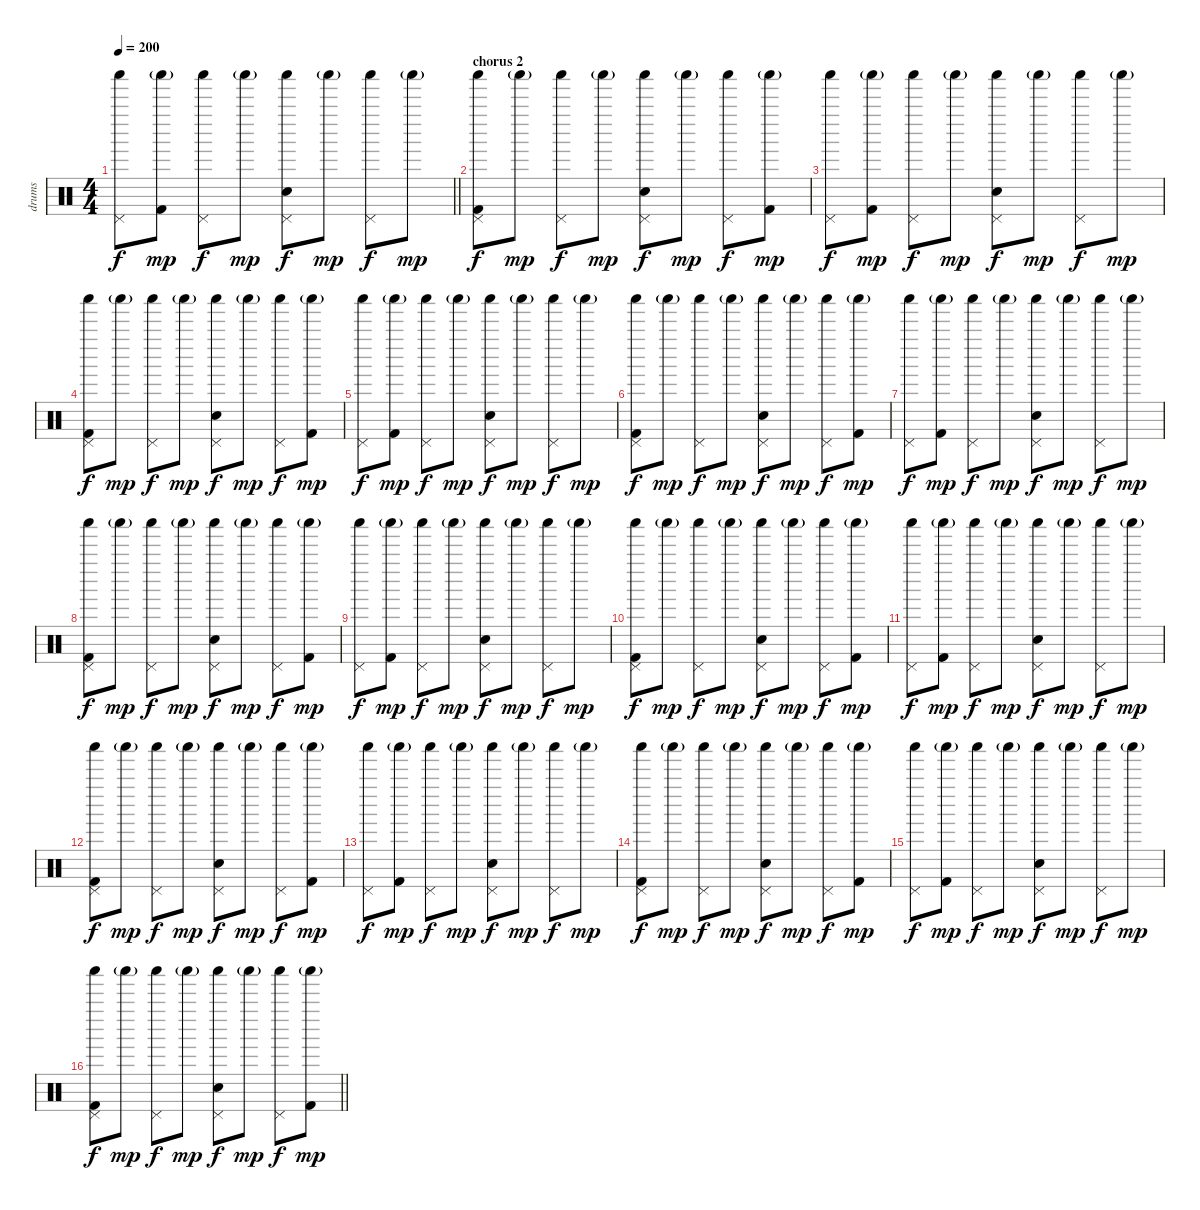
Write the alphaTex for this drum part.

\track ("drums" "drums") {instrument percussion}
\staff {score}
\articulation defaults
\ts (4 4)
\tempo 200
\clef neutral
\barLineRight lightlight
\ks c
("Shaker (hit)" "Pedal Hi-Hat (hit)").8{dy f} ("Kick (hit) 2" "Shaker (hit)"{g}).8{dy mp} ("Shaker (hit)" "Pedal Hi-Hat (hit)").8{dy f} "Shaker (hit)"{g}.8{dy mp} ("Electric Snare (hit)" "Shaker (hit)" "Pedal Hi-Hat (hit)").8{dy f} "Shaker (hit)"{g}.8{dy mp} ("Shaker (hit)" "Pedal Hi-Hat (hit)").8{dy f} "Shaker (hit)"{g}.8{dy mp} |
\section ("" "chorus 2")
("Kick (hit) 2" "Shaker (hit)" "Pedal Hi-Hat (hit)").8{dy f} "Shaker (hit)"{g}.8{dy mp} ("Shaker (hit)" "Pedal Hi-Hat (hit)").8{dy f} "Shaker (hit)"{g}.8{dy mp} ("Electric Snare (hit)" "Shaker (hit)" "Pedal Hi-Hat (hit)").8{dy f} "Shaker (hit)"{g}.8{dy mp} ("Shaker (hit)" "Pedal Hi-Hat (hit)").8{dy f} ("Kick (hit) 2" "Shaker (hit)"{g}).8{dy mp} |
("Shaker (hit)" "Pedal Hi-Hat (hit)").8{dy f} ("Kick (hit) 2" "Shaker (hit)"{g}).8{dy mp} ("Shaker (hit)" "Pedal Hi-Hat (hit)").8{dy f} "Shaker (hit)"{g}.8{dy mp} ("Electric Snare (hit)" "Shaker (hit)" "Pedal Hi-Hat (hit)").8{dy f} "Shaker (hit)"{g}.8{dy mp} ("Shaker (hit)" "Pedal Hi-Hat (hit)").8{dy f} "Shaker (hit)"{g}.8{dy mp} |
("Kick (hit) 2" "Shaker (hit)" "Pedal Hi-Hat (hit)").8{dy f} "Shaker (hit)"{g}.8{dy mp} ("Shaker (hit)" "Pedal Hi-Hat (hit)").8{dy f} "Shaker (hit)"{g}.8{dy mp} ("Electric Snare (hit)" "Shaker (hit)" "Pedal Hi-Hat (hit)").8{dy f} "Shaker (hit)"{g}.8{dy mp} ("Shaker (hit)" "Pedal Hi-Hat (hit)").8{dy f} ("Kick (hit) 2" "Shaker (hit)"{g}).8{dy mp} |
("Shaker (hit)" "Pedal Hi-Hat (hit)").8{dy f} ("Kick (hit) 2" "Shaker (hit)"{g}).8{dy mp} ("Shaker (hit)" "Pedal Hi-Hat (hit)").8{dy f} "Shaker (hit)"{g}.8{dy mp} ("Electric Snare (hit)" "Shaker (hit)" "Pedal Hi-Hat (hit)").8{dy f} "Shaker (hit)"{g}.8{dy mp} ("Shaker (hit)" "Pedal Hi-Hat (hit)").8{dy f} "Shaker (hit)"{g}.8{dy mp} |
("Kick (hit) 2" "Shaker (hit)" "Pedal Hi-Hat (hit)").8{dy f} "Shaker (hit)"{g}.8{dy mp} ("Shaker (hit)" "Pedal Hi-Hat (hit)").8{dy f} "Shaker (hit)"{g}.8{dy mp} ("Electric Snare (hit)" "Shaker (hit)" "Pedal Hi-Hat (hit)").8{dy f} "Shaker (hit)"{g}.8{dy mp} ("Shaker (hit)" "Pedal Hi-Hat (hit)").8{dy f} ("Kick (hit) 2" "Shaker (hit)"{g}).8{dy mp} |
("Shaker (hit)" "Pedal Hi-Hat (hit)").8{dy f} ("Kick (hit) 2" "Shaker (hit)"{g}).8{dy mp} ("Shaker (hit)" "Pedal Hi-Hat (hit)").8{dy f} "Shaker (hit)"{g}.8{dy mp} ("Electric Snare (hit)" "Shaker (hit)" "Pedal Hi-Hat (hit)").8{dy f} "Shaker (hit)"{g}.8{dy mp} ("Shaker (hit)" "Pedal Hi-Hat (hit)").8{dy f} "Shaker (hit)"{g}.8{dy mp} |
("Kick (hit) 2" "Shaker (hit)" "Pedal Hi-Hat (hit)").8{dy f} "Shaker (hit)"{g}.8{dy mp} ("Shaker (hit)" "Pedal Hi-Hat (hit)").8{dy f} "Shaker (hit)"{g}.8{dy mp} ("Electric Snare (hit)" "Shaker (hit)" "Pedal Hi-Hat (hit)").8{dy f} "Shaker (hit)"{g}.8{dy mp} ("Shaker (hit)" "Pedal Hi-Hat (hit)").8{dy f} ("Kick (hit) 2" "Shaker (hit)"{g}).8{dy mp} |
("Shaker (hit)" "Pedal Hi-Hat (hit)").8{dy f} ("Kick (hit) 2" "Shaker (hit)"{g}).8{dy mp} ("Shaker (hit)" "Pedal Hi-Hat (hit)").8{dy f} "Shaker (hit)"{g}.8{dy mp} ("Electric Snare (hit)" "Shaker (hit)" "Pedal Hi-Hat (hit)").8{dy f} "Shaker (hit)"{g}.8{dy mp} ("Shaker (hit)" "Pedal Hi-Hat (hit)").8{dy f} "Shaker (hit)"{g}.8{dy mp} |
("Kick (hit) 2" "Shaker (hit)" "Pedal Hi-Hat (hit)").8{dy f} "Shaker (hit)"{g}.8{dy mp} ("Shaker (hit)" "Pedal Hi-Hat (hit)").8{dy f} "Shaker (hit)"{g}.8{dy mp} ("Electric Snare (hit)" "Shaker (hit)" "Pedal Hi-Hat (hit)").8{dy f} "Shaker (hit)"{g}.8{dy mp} ("Shaker (hit)" "Pedal Hi-Hat (hit)").8{dy f} ("Kick (hit) 2" "Shaker (hit)"{g}).8{dy mp} |
("Shaker (hit)" "Pedal Hi-Hat (hit)").8{dy f} ("Kick (hit) 2" "Shaker (hit)"{g}).8{dy mp} ("Shaker (hit)" "Pedal Hi-Hat (hit)").8{dy f} "Shaker (hit)"{g}.8{dy mp} ("Electric Snare (hit)" "Shaker (hit)" "Pedal Hi-Hat (hit)").8{dy f} "Shaker (hit)"{g}.8{dy mp} ("Shaker (hit)" "Pedal Hi-Hat (hit)").8{dy f} "Shaker (hit)"{g}.8{dy mp} |
("Kick (hit) 2" "Shaker (hit)" "Pedal Hi-Hat (hit)").8{dy f} "Shaker (hit)"{g}.8{dy mp} ("Shaker (hit)" "Pedal Hi-Hat (hit)").8{dy f} "Shaker (hit)"{g}.8{dy mp} ("Electric Snare (hit)" "Shaker (hit)" "Pedal Hi-Hat (hit)").8{dy f} "Shaker (hit)"{g}.8{dy mp} ("Shaker (hit)" "Pedal Hi-Hat (hit)").8{dy f} ("Kick (hit) 2" "Shaker (hit)"{g}).8{dy mp} |
("Shaker (hit)" "Pedal Hi-Hat (hit)").8{dy f} ("Kick (hit) 2" "Shaker (hit)"{g}).8{dy mp} ("Shaker (hit)" "Pedal Hi-Hat (hit)").8{dy f} "Shaker (hit)"{g}.8{dy mp} ("Electric Snare (hit)" "Shaker (hit)" "Pedal Hi-Hat (hit)").8{dy f} "Shaker (hit)"{g}.8{dy mp} ("Shaker (hit)" "Pedal Hi-Hat (hit)").8{dy f} "Shaker (hit)"{g}.8{dy mp} |
("Kick (hit) 2" "Shaker (hit)" "Pedal Hi-Hat (hit)").8{dy f} "Shaker (hit)"{g}.8{dy mp} ("Shaker (hit)" "Pedal Hi-Hat (hit)").8{dy f} "Shaker (hit)"{g}.8{dy mp} ("Electric Snare (hit)" "Shaker (hit)" "Pedal Hi-Hat (hit)").8{dy f} "Shaker (hit)"{g}.8{dy mp} ("Shaker (hit)" "Pedal Hi-Hat (hit)").8{dy f} ("Kick (hit) 2" "Shaker (hit)"{g}).8{dy mp} |
("Shaker (hit)" "Pedal Hi-Hat (hit)").8{dy f} ("Kick (hit) 2" "Shaker (hit)"{g}).8{dy mp} ("Shaker (hit)" "Pedal Hi-Hat (hit)").8{dy f} "Shaker (hit)"{g}.8{dy mp} ("Electric Snare (hit)" "Shaker (hit)" "Pedal Hi-Hat (hit)").8{dy f} "Shaker (hit)"{g}.8{dy mp} ("Shaker (hit)" "Pedal Hi-Hat (hit)").8{dy f} "Shaker (hit)"{g}.8{dy mp} |
\barLineRight lightlight
("Kick (hit) 2" "Shaker (hit)" "Pedal Hi-Hat (hit)").8{dy f} "Shaker (hit)"{g}.8{dy mp} ("Shaker (hit)" "Pedal Hi-Hat (hit)").8{dy f} "Shaker (hit)"{g}.8{dy mp} ("Electric Snare (hit)" "Shaker (hit)" "Pedal Hi-Hat (hit)").8{dy f} "Shaker (hit)"{g}.8{dy mp} ("Shaker (hit)" "Pedal Hi-Hat (hit)").8{dy f} ("Kick (hit) 2" "Shaker (hit)"{g}).8{dy mp}
